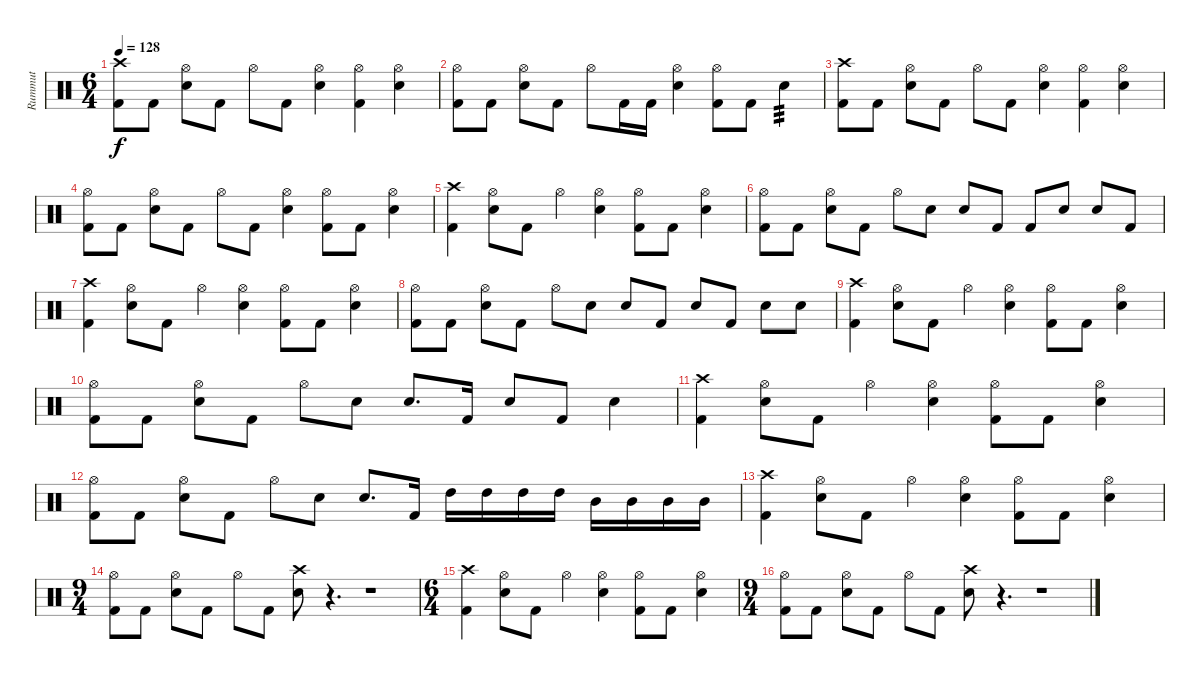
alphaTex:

\track ("Rummut" "Rummut") {instrument percussion}
\staff {score}
\articulation defaults
\ts (6 4)
\tempo 128
\clef neutral
\ks aminor
("Crash high (hit)" "Kick (hit) 2").8{dy f} "Kick (hit) 2".8 ("Hi-Hat (open)" "Electric Snare (hit)").8 "Kick (hit) 2".8 "Hi-Hat (open)".8 "Kick (hit) 2".8 ("Hi-Hat (open)" "Electric Snare (hit)").4 ("Hi-Hat (open)" "Kick (hit) 2").4 ("Hi-Hat (open)" "Electric Snare (hit)").4 |
("Hi-Hat (open)" "Kick (hit) 2").8 "Kick (hit) 2".8 ("Hi-Hat (open)" "Electric Snare (hit)").8 "Kick (hit) 2".8 "Hi-Hat (open)".8 "Kick (hit) 2".16 "Kick (hit) 2".16 ("Hi-Hat (open)" "Electric Snare (hit)").4 ("Hi-Hat (open)" "Kick (hit) 2").8 "Kick (hit) 2".8 "Electric Snare (hit)".4{tp 3} |
("Crash high (hit)" "Kick (hit) 2").8 "Kick (hit) 2".8 ("Hi-Hat (open)" "Electric Snare (hit)").8 "Kick (hit) 2".8 "Hi-Hat (open)".8 "Kick (hit) 2".8 ("Hi-Hat (open)" "Electric Snare (hit)").4 ("Hi-Hat (open)" "Kick (hit) 2").4 ("Hi-Hat (open)" "Electric Snare (hit)").4 |
("Hi-Hat (open)" "Kick (hit) 2").8 "Kick (hit) 2".8 ("Hi-Hat (open)" "Electric Snare (hit)").8 "Kick (hit) 2".8 "Hi-Hat (open)".8 "Kick (hit) 2".8 ("Hi-Hat (open)" "Electric Snare (hit)").4 ("Hi-Hat (open)" "Kick (hit) 2").8 "Kick (hit) 2".8 ("Hi-Hat (open)" "Electric Snare (hit)").4 |
("Crash high (hit)" "Kick (hit) 2").4 ("Hi-Hat (open)" "Electric Snare (hit)").8 "Kick (hit) 2".8 "Hi-Hat (open)".4 ("Hi-Hat (open)" "Electric Snare (hit)").4 ("Hi-Hat (open)" "Kick (hit) 2").8 "Kick (hit) 2".8 ("Hi-Hat (open)" "Electric Snare (hit)").4 |
("Hi-Hat (open)" "Kick (hit) 2").8 "Kick (hit) 2".8 ("Hi-Hat (open)" "Electric Snare (hit)").8 "Kick (hit) 2".8 "Hi-Hat (open)".8 "Electric Snare (hit)".8 "Electric Snare (hit)".8 "Kick (hit) 2".8 "Kick (hit) 2".8 "Electric Snare (hit)".8 "Electric Snare (hit)".8 "Kick (hit) 2".8 |
("Crash high (hit)" "Kick (hit) 2").4 ("Hi-Hat (open)" "Electric Snare (hit)").8 "Kick (hit) 2".8 "Hi-Hat (open)".4 ("Hi-Hat (open)" "Electric Snare (hit)").4 ("Hi-Hat (open)" "Kick (hit) 2").8 "Kick (hit) 2".8 ("Hi-Hat (open)" "Electric Snare (hit)").4 |
("Hi-Hat (open)" "Kick (hit) 2").8 "Kick (hit) 2".8 ("Hi-Hat (open)" "Electric Snare (hit)").8 "Kick (hit) 2".8 "Hi-Hat (open)".8 "Electric Snare (hit)".8 "Electric Snare (hit)".8 "Kick (hit) 2".8 "Electric Snare (hit)".8 "Kick (hit) 2".8 "Electric Snare (hit)".8 "Electric Snare (hit)".8 |
("Crash high (hit)" "Kick (hit) 2").4 ("Hi-Hat (open)" "Electric Snare (hit)").8 "Kick (hit) 2".8 "Hi-Hat (open)".4 ("Hi-Hat (open)" "Electric Snare (hit)").4 ("Hi-Hat (open)" "Kick (hit) 2").8 "Kick (hit) 2".8 ("Hi-Hat (open)" "Electric Snare (hit)").4 |
("Hi-Hat (open)" "Kick (hit) 2").8 "Kick (hit) 2".8 ("Hi-Hat (open)" "Electric Snare (hit)").8 "Kick (hit) 2".8 "Hi-Hat (open)".8 "Electric Snare (hit)".8 "Electric Snare (hit)".8{d} "Kick (hit) 2".16 "Electric Snare (hit)".8 "Kick (hit) 2".8 "Electric Snare (hit)".4 |
("Crash high (hit)" "Kick (hit) 2").4 ("Hi-Hat (open)" "Electric Snare (hit)").8 "Kick (hit) 2".8 "Hi-Hat (open)".4 ("Hi-Hat (open)" "Electric Snare (hit)").4 ("Hi-Hat (open)" "Kick (hit) 2").8 "Kick (hit) 2".8 ("Hi-Hat (open)" "Electric Snare (hit)").4 |
("Hi-Hat (open)" "Kick (hit) 2").8 "Kick (hit) 2".8 ("Hi-Hat (open)" "Electric Snare (hit)").8 "Kick (hit) 2".8 "Hi-Hat (open)".8 "Electric Snare (hit)".8 "Electric Snare (hit)".8{d} "Kick (hit) 2".16 "High Tom (hit)".16 "High Tom (hit)".16 "High Tom (hit)".16 "High Tom (hit)".16 "Mid Tom (hit)".16 "Mid Tom (hit)".16 "Mid Tom (hit)".16 "Mid Tom (hit)".16 |
("Crash high (hit)" "Kick (hit) 2").4 ("Hi-Hat (open)" "Electric Snare (hit)").8 "Kick (hit) 2".8 "Hi-Hat (open)".4 ("Hi-Hat (open)" "Electric Snare (hit)").4 ("Hi-Hat (open)" "Kick (hit) 2").8 "Kick (hit) 2".8 ("Hi-Hat (open)" "Electric Snare (hit)").4 |
\ts (9 4)
("Hi-Hat (open)" "Kick (hit) 2").8 "Kick (hit) 2".8 ("Hi-Hat (open)" "Electric Snare (hit)").8 "Kick (hit) 2".8 "Hi-Hat (open)".8 "Kick (hit) 2".8 ("Crash high (hit)" "Electric Snare (hit)").8 r.4{d} r.1 |
\ts (6 4)
("Crash high (hit)" "Kick (hit) 2").4 ("Hi-Hat (open)" "Electric Snare (hit)").8 "Kick (hit) 2".8 "Hi-Hat (open)".4 ("Hi-Hat (open)" "Electric Snare (hit)").4 ("Hi-Hat (open)" "Kick (hit) 2").8 "Kick (hit) 2".8 ("Hi-Hat (open)" "Electric Snare (hit)").4 |
\ts (9 4)
("Hi-Hat (open)" "Kick (hit) 2").8 "Kick (hit) 2".8 ("Hi-Hat (open)" "Electric Snare (hit)").8 "Kick (hit) 2".8 "Hi-Hat (open)".8 "Kick (hit) 2".8 ("Crash high (hit)" "Electric Snare (hit)").8 r.4{d} r.1
